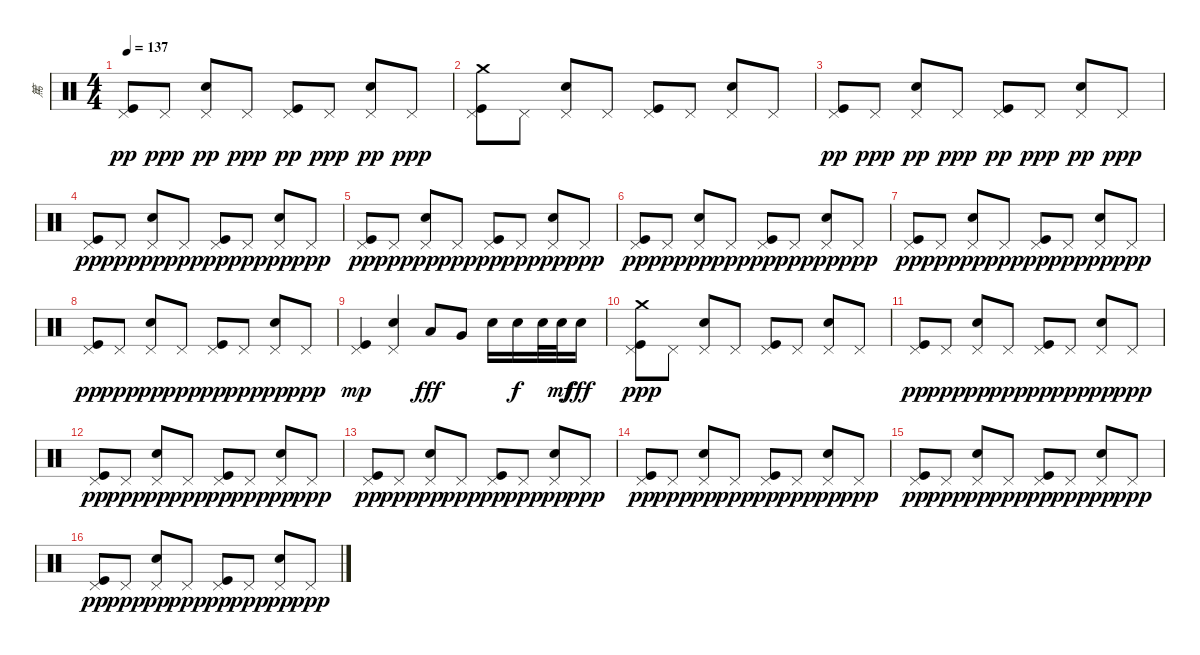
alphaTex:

\track ("篤" "篤") {instrument percussion}
\staff {score}
\articulation defaults
\ts (4 4)
\tempo 137
\clef neutral
\ks c
("Kick (hit)" "Pedal Hi-Hat (hit)").8{dy pp} "Pedal Hi-Hat (hit)".8{dy ppp} ("Snare (hit) 2" "Pedal Hi-Hat (hit)").8{dy pp} "Pedal Hi-Hat (hit)".8{dy ppp} ("Kick (hit)" "Pedal Hi-Hat (hit)").8{dy pp} "Pedal Hi-Hat (hit)".8{dy ppp} ("Snare (hit) 2" "Pedal Hi-Hat (hit)").8{dy pp} "Pedal Hi-Hat (hit)".8{dy ppp} |
("Crash medium (hit)" "Kick (hit)" "Pedal Hi-Hat (hit)").8 "Pedal Hi-Hat (hit)".8 ("Snare (hit) 2" "Pedal Hi-Hat (hit)").8 "Pedal Hi-Hat (hit)".8 ("Kick (hit)" "Pedal Hi-Hat (hit)").8 "Pedal Hi-Hat (hit)".8 ("Snare (hit) 2" "Pedal Hi-Hat (hit)").8 "Pedal Hi-Hat (hit)".8 |
("Kick (hit)" "Pedal Hi-Hat (hit)").8{dy pp} "Pedal Hi-Hat (hit)".8{dy ppp} ("Snare (hit) 2" "Pedal Hi-Hat (hit)").8{dy pp} "Pedal Hi-Hat (hit)".8{dy ppp} ("Kick (hit)" "Pedal Hi-Hat (hit)").8{dy pp} "Pedal Hi-Hat (hit)".8{dy ppp} ("Snare (hit) 2" "Pedal Hi-Hat (hit)").8{dy pp} "Pedal Hi-Hat (hit)".8{dy ppp} |
("Kick (hit)" "Pedal Hi-Hat (hit)").8{dy pp} "Pedal Hi-Hat (hit)".8{dy ppp} ("Snare (hit) 2" "Pedal Hi-Hat (hit)").8{dy pp} "Pedal Hi-Hat (hit)".8{dy ppp} ("Kick (hit)" "Pedal Hi-Hat (hit)").8{dy pp} "Pedal Hi-Hat (hit)".8{dy ppp} ("Snare (hit) 2" "Pedal Hi-Hat (hit)").8{dy pp} "Pedal Hi-Hat (hit)".8{dy ppp} |
("Kick (hit)" "Pedal Hi-Hat (hit)").8{dy pp} "Pedal Hi-Hat (hit)".8{dy ppp} ("Snare (hit) 2" "Pedal Hi-Hat (hit)").8{dy pp} "Pedal Hi-Hat (hit)".8{dy ppp} ("Kick (hit)" "Pedal Hi-Hat (hit)").8{dy pp} "Pedal Hi-Hat (hit)".8{dy ppp} ("Snare (hit) 2" "Pedal Hi-Hat (hit)").8{dy pp} "Pedal Hi-Hat (hit)".8{dy ppp} |
("Kick (hit)" "Pedal Hi-Hat (hit)").8{dy pp} "Pedal Hi-Hat (hit)".8{dy ppp} ("Snare (hit) 2" "Pedal Hi-Hat (hit)").8{dy pp} "Pedal Hi-Hat (hit)".8{dy ppp} ("Kick (hit)" "Pedal Hi-Hat (hit)").8{dy pp} "Pedal Hi-Hat (hit)".8{dy ppp} ("Snare (hit) 2" "Pedal Hi-Hat (hit)").8{dy pp} "Pedal Hi-Hat (hit)".8{dy ppp} |
("Kick (hit)" "Pedal Hi-Hat (hit)").8{dy pp} "Pedal Hi-Hat (hit)".8{dy ppp} ("Snare (hit) 2" "Pedal Hi-Hat (hit)").8{dy pp} "Pedal Hi-Hat (hit)".8{dy ppp} ("Kick (hit)" "Pedal Hi-Hat (hit)").8{dy pp} "Pedal Hi-Hat (hit)".8{dy ppp} ("Snare (hit) 2" "Pedal Hi-Hat (hit)").8{dy pp} "Pedal Hi-Hat (hit)".8{dy ppp} |
("Kick (hit)" "Pedal Hi-Hat (hit)").8{dy pp} "Pedal Hi-Hat (hit)".8{dy ppp} ("Snare (hit) 2" "Pedal Hi-Hat (hit)").8{dy pp} "Pedal Hi-Hat (hit)".8{dy ppp} ("Kick (hit)" "Pedal Hi-Hat (hit)").8{dy pp} "Pedal Hi-Hat (hit)".8{dy ppp} ("Snare (hit) 2" "Pedal Hi-Hat (hit)").8{dy pp} "Pedal Hi-Hat (hit)".8{dy ppp} |
("Kick (hit)" "Pedal Hi-Hat (hit)").4{dy mp} ("Snare (hit) 2" "Pedal Hi-Hat (hit)").4 "Low Tom (hit)".8{dy fff} "Very Low Tom (hit)".8 "Snare (hit) 2".16 "Snare (hit) 2".16{dy f} "Snare (hit) 2".32 "Snare (hit) 2".32{dy mf} "Snare (hit) 2".16{dy fff} |
("Crash medium (hit)" "Kick (hit)" "Pedal Hi-Hat (hit)").8{dy ppp} "Pedal Hi-Hat (hit)".8 ("Snare (hit) 2" "Pedal Hi-Hat (hit)").8 "Pedal Hi-Hat (hit)".8 ("Kick (hit)" "Pedal Hi-Hat (hit)").8 "Pedal Hi-Hat (hit)".8 ("Snare (hit) 2" "Pedal Hi-Hat (hit)").8 "Pedal Hi-Hat (hit)".8 |
("Kick (hit)" "Pedal Hi-Hat (hit)").8{dy pp} "Pedal Hi-Hat (hit)".8{dy ppp} ("Snare (hit) 2" "Pedal Hi-Hat (hit)").8{dy pp} "Pedal Hi-Hat (hit)".8{dy ppp} ("Kick (hit)" "Pedal Hi-Hat (hit)").8{dy pp} "Pedal Hi-Hat (hit)".8{dy ppp} ("Snare (hit) 2" "Pedal Hi-Hat (hit)").8{dy pp} "Pedal Hi-Hat (hit)".8{dy ppp} |
("Kick (hit)" "Pedal Hi-Hat (hit)").8{dy pp} "Pedal Hi-Hat (hit)".8{dy ppp} ("Snare (hit) 2" "Pedal Hi-Hat (hit)").8{dy pp} "Pedal Hi-Hat (hit)".8{dy ppp} ("Kick (hit)" "Pedal Hi-Hat (hit)").8{dy pp} "Pedal Hi-Hat (hit)".8{dy ppp} ("Snare (hit) 2" "Pedal Hi-Hat (hit)").8{dy pp} "Pedal Hi-Hat (hit)".8{dy ppp} |
("Kick (hit)" "Pedal Hi-Hat (hit)").8{dy pp} "Pedal Hi-Hat (hit)".8{dy ppp} ("Snare (hit) 2" "Pedal Hi-Hat (hit)").8{dy pp} "Pedal Hi-Hat (hit)".8{dy ppp} ("Kick (hit)" "Pedal Hi-Hat (hit)").8{dy pp} "Pedal Hi-Hat (hit)".8{dy ppp} ("Snare (hit) 2" "Pedal Hi-Hat (hit)").8{dy pp} "Pedal Hi-Hat (hit)".8{dy ppp} |
("Kick (hit)" "Pedal Hi-Hat (hit)").8{dy pp} "Pedal Hi-Hat (hit)".8{dy ppp} ("Snare (hit) 2" "Pedal Hi-Hat (hit)").8{dy pp} "Pedal Hi-Hat (hit)".8{dy ppp} ("Kick (hit)" "Pedal Hi-Hat (hit)").8{dy pp} "Pedal Hi-Hat (hit)".8{dy ppp} ("Snare (hit) 2" "Pedal Hi-Hat (hit)").8{dy pp} "Pedal Hi-Hat (hit)".8{dy ppp} |
("Kick (hit)" "Pedal Hi-Hat (hit)").8{dy pp} "Pedal Hi-Hat (hit)".8{dy ppp} ("Snare (hit) 2" "Pedal Hi-Hat (hit)").8{dy pp} "Pedal Hi-Hat (hit)".8{dy ppp} ("Kick (hit)" "Pedal Hi-Hat (hit)").8{dy pp} "Pedal Hi-Hat (hit)".8{dy ppp} ("Snare (hit) 2" "Pedal Hi-Hat (hit)").8{dy pp} "Pedal Hi-Hat (hit)".8{dy ppp} |
("Kick (hit)" "Pedal Hi-Hat (hit)").8{dy pp} "Pedal Hi-Hat (hit)".8{dy ppp} ("Snare (hit) 2" "Pedal Hi-Hat (hit)").8{dy pp} "Pedal Hi-Hat (hit)".8{dy ppp} ("Kick (hit)" "Pedal Hi-Hat (hit)").8{dy pp} "Pedal Hi-Hat (hit)".8{dy ppp} ("Snare (hit) 2" "Pedal Hi-Hat (hit)").8{dy pp} "Pedal Hi-Hat (hit)".8{dy ppp}
